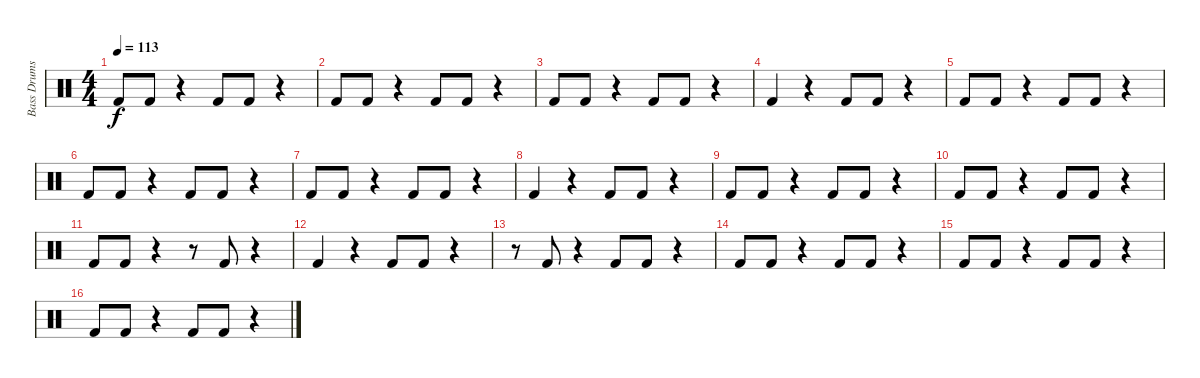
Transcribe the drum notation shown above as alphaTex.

\track ("Bass Drums" "Bass Drums") {instrument percussion}
\staff {score}
\articulation defaults
\ts (4 4)
\tempo 113
\clef neutral
\ks c "Kick (hit) 2".8{dy f} "Kick (hit) 2".8
r.4 "Kick (hit) 2".8 "Kick (hit) 2".8 r.4 |
"Kick (hit) 2".8 "Kick (hit) 2".8 r.4 "Kick (hit) 2".8 "Kick (hit) 2".8 r.4 |
"Kick (hit) 2".8 "Kick (hit) 2".8 r.4 "Kick (hit) 2".8 "Kick (hit) 2".8 r.4 |
"Kick (hit) 2".4 r.4 "Kick (hit) 2".8 "Kick (hit) 2".8 r.4 |
"Kick (hit) 2".8 "Kick (hit) 2".8 r.4 "Kick (hit) 2".8 "Kick (hit) 2".8 r.4 |
"Kick (hit) 2".8 "Kick (hit) 2".8 r.4 "Kick (hit) 2".8 "Kick (hit) 2".8 r.4 |
"Kick (hit) 2".8 "Kick (hit) 2".8 r.4 "Kick (hit) 2".8 "Kick (hit) 2".8 r.4 |
"Kick (hit) 2".4 r.4 "Kick (hit) 2".8 "Kick (hit) 2".8 r.4 |
"Kick (hit) 2".8 "Kick (hit) 2".8 r.4 "Kick (hit) 2".8 "Kick (hit) 2".8 r.4 |
"Kick (hit) 2".8 "Kick (hit) 2".8 r.4 "Kick (hit) 2".8 "Kick (hit) 2".8 r.4 |
"Kick (hit) 2".8 "Kick (hit) 2".8 r.4 r.8 "Kick (hit) 2".8 r.4 |
"Kick (hit) 2".4 r.4 "Kick (hit) 2".8 "Kick (hit) 2".8 r.4 |
r.8 "Kick (hit) 2".8 r.4 "Kick (hit) 2".8 "Kick (hit) 2".8 r.4 |
"Kick (hit) 2".8 "Kick (hit) 2".8 r.4 "Kick (hit) 2".8 "Kick (hit) 2".8 r.4 |
"Kick (hit) 2".8 "Kick (hit) 2".8 r.4 "Kick (hit) 2".8 "Kick (hit) 2".8 r.4 |
"Kick (hit) 2".8 "Kick (hit) 2".8 r.4 "Kick (hit) 2".8 "Kick (hit) 2".8 r.4
